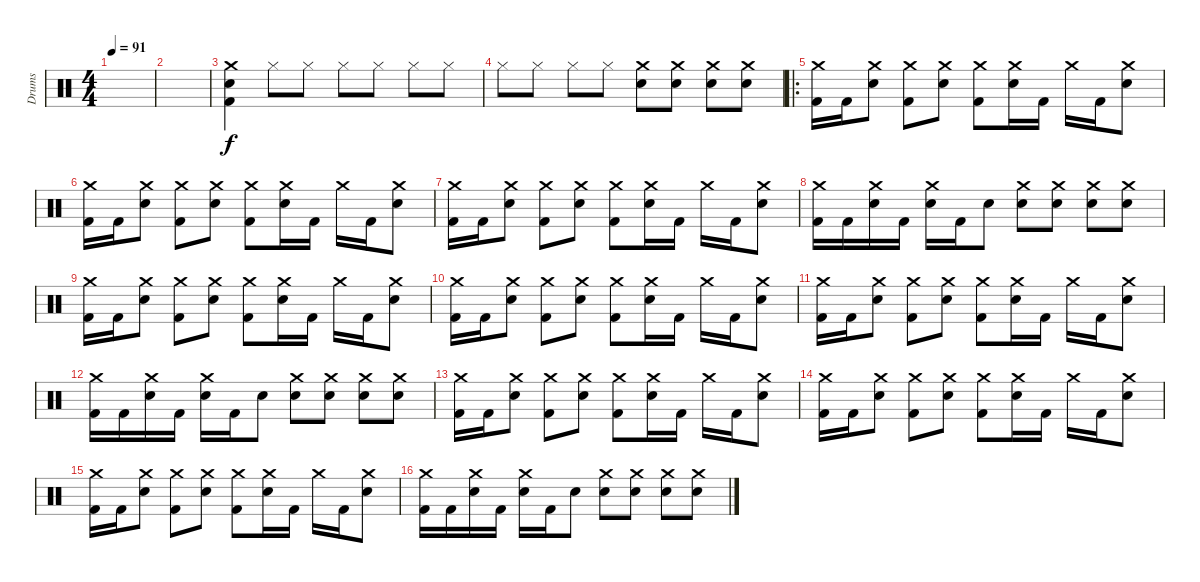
\track ("Drums" "Drums") {instrument percussion}
\staff {score}
\articulation defaults
\ts (4 4)
\tempo 91
\clef neutral
\ks c
|
|
("Crash medium (hit)" "Snare (hit) 2" "Kick (hit) 2").4 "Hi-Hat (closed)".8 "Hi-Hat (closed)".8 "Hi-Hat (closed)".8 "Hi-Hat (closed)".8 "Hi-Hat (closed)".8 "Hi-Hat (closed)".8 |
"Hi-Hat (closed)".8 "Hi-Hat (closed)".8 "Hi-Hat (closed)".8 "Hi-Hat (closed)".8 ("Snare (hit) 2" "Crash medium (hit)").8 ("Snare (hit) 2" "Crash medium (hit)").8 ("Snare (hit) 2" "Crash medium (hit)").8 ("Snare (hit) 2" "Crash medium (hit)").8 |
\ro
("Crash medium (hit)" "Kick (hit) 2").16 "Kick (hit) 2".16 ("Crash medium (hit)" "Snare (hit) 2").8 ("Crash medium (hit)" "Kick (hit) 2").8 ("Crash medium (hit)" "Snare (hit) 2").8 ("Crash medium (hit)" "Kick (hit) 2").8 ("Crash medium (hit)" "Snare (hit) 2").16 "Kick (hit) 2".16 "Crash medium (hit)".16 "Kick (hit) 2".16 ("Crash medium (hit)" "Snare (hit) 2").8 |
("Crash medium (hit)" "Kick (hit) 2").16 "Kick (hit) 2".16 ("Crash medium (hit)" "Snare (hit) 2").8 ("Crash medium (hit)" "Kick (hit) 2").8 ("Crash medium (hit)" "Snare (hit) 2").8 ("Crash medium (hit)" "Kick (hit) 2").8 ("Crash medium (hit)" "Snare (hit) 2").16 "Kick (hit) 2".16 "Crash medium (hit)".16 "Kick (hit) 2".16 ("Crash medium (hit)" "Snare (hit) 2").8 |
("Crash medium (hit)" "Kick (hit) 2").16 "Kick (hit) 2".16 ("Crash medium (hit)" "Snare (hit) 2").8 ("Crash medium (hit)" "Kick (hit) 2").8 ("Crash medium (hit)" "Snare (hit) 2").8 ("Crash medium (hit)" "Kick (hit) 2").8 ("Crash medium (hit)" "Snare (hit) 2").16 "Kick (hit) 2".16 "Crash medium (hit)".16 "Kick (hit) 2".16 ("Crash medium (hit)" "Snare (hit) 2").8 |
("Crash medium (hit)" "Kick (hit) 2").16 "Kick (hit) 2".16 ("Crash medium (hit)" "Snare (hit) 2").16 "Kick (hit) 2".16 ("Crash medium (hit)" "Snare (hit) 2").16 "Kick (hit) 2".16 "Snare (hit) 2".8 ("Crash medium (hit)" "Snare (hit) 2").8 ("Crash medium (hit)" "Snare (hit) 2").8 ("Crash medium (hit)" "Snare (hit) 2").8 ("Crash medium (hit)" "Snare (hit) 2").8 |
("Crash medium (hit)" "Kick (hit) 2").16 "Kick (hit) 2".16 ("Crash medium (hit)" "Snare (hit) 2").8 ("Crash medium (hit)" "Kick (hit) 2").8 ("Crash medium (hit)" "Snare (hit) 2").8 ("Crash medium (hit)" "Kick (hit) 2").8 ("Crash medium (hit)" "Snare (hit) 2").16 "Kick (hit) 2".16 "Crash medium (hit)".16 "Kick (hit) 2".16 ("Crash medium (hit)" "Snare (hit) 2").8 |
("Crash medium (hit)" "Kick (hit) 2").16 "Kick (hit) 2".16 ("Crash medium (hit)" "Snare (hit) 2").8 ("Crash medium (hit)" "Kick (hit) 2").8 ("Crash medium (hit)" "Snare (hit) 2").8 ("Crash medium (hit)" "Kick (hit) 2").8 ("Crash medium (hit)" "Snare (hit) 2").16 "Kick (hit) 2".16 "Crash medium (hit)".16 "Kick (hit) 2".16 ("Crash medium (hit)" "Snare (hit) 2").8 |
("Crash medium (hit)" "Kick (hit) 2").16 "Kick (hit) 2".16 ("Crash medium (hit)" "Snare (hit) 2").8 ("Crash medium (hit)" "Kick (hit) 2").8 ("Crash medium (hit)" "Snare (hit) 2").8 ("Crash medium (hit)" "Kick (hit) 2").8 ("Crash medium (hit)" "Snare (hit) 2").16 "Kick (hit) 2".16 "Crash medium (hit)".16 "Kick (hit) 2".16 ("Crash medium (hit)" "Snare (hit) 2").8 |
("Crash medium (hit)" "Kick (hit) 2").16 "Kick (hit) 2".16 ("Crash medium (hit)" "Snare (hit) 2").16 "Kick (hit) 2".16 ("Crash medium (hit)" "Snare (hit) 2").16 "Kick (hit) 2".16 "Snare (hit) 2".8 ("Crash medium (hit)" "Snare (hit) 2").8 ("Crash medium (hit)" "Snare (hit) 2").8 ("Crash medium (hit)" "Snare (hit) 2").8 ("Crash medium (hit)" "Snare (hit) 2").8 |
("Crash medium (hit)" "Kick (hit) 2").16 "Kick (hit) 2".16 ("Crash medium (hit)" "Snare (hit) 2").8 ("Crash medium (hit)" "Kick (hit) 2").8 ("Crash medium (hit)" "Snare (hit) 2").8 ("Crash medium (hit)" "Kick (hit) 2").8 ("Crash medium (hit)" "Snare (hit) 2").16 "Kick (hit) 2".16 "Crash medium (hit)".16 "Kick (hit) 2".16 ("Crash medium (hit)" "Snare (hit) 2").8 |
("Crash medium (hit)" "Kick (hit) 2").16 "Kick (hit) 2".16 ("Crash medium (hit)" "Snare (hit) 2").8 ("Crash medium (hit)" "Kick (hit) 2").8 ("Crash medium (hit)" "Snare (hit) 2").8 ("Crash medium (hit)" "Kick (hit) 2").8 ("Crash medium (hit)" "Snare (hit) 2").16 "Kick (hit) 2".16 "Crash medium (hit)".16 "Kick (hit) 2".16 ("Crash medium (hit)" "Snare (hit) 2").8 |
("Crash medium (hit)" "Kick (hit) 2").16 "Kick (hit) 2".16 ("Crash medium (hit)" "Snare (hit) 2").8 ("Crash medium (hit)" "Kick (hit) 2").8 ("Crash medium (hit)" "Snare (hit) 2").8 ("Crash medium (hit)" "Kick (hit) 2").8 ("Crash medium (hit)" "Snare (hit) 2").16 "Kick (hit) 2".16 "Crash medium (hit)".16 "Kick (hit) 2".16 ("Crash medium (hit)" "Snare (hit) 2").8 |
("Crash medium (hit)" "Kick (hit) 2").16 "Kick (hit) 2".16 ("Crash medium (hit)" "Snare (hit) 2").16 "Kick (hit) 2".16 ("Crash medium (hit)" "Snare (hit) 2").16 "Kick (hit) 2".16 "Snare (hit) 2".8 ("Crash medium (hit)" "Snare (hit) 2").8 ("Crash medium (hit)" "Snare (hit) 2").8 ("Crash medium (hit)" "Snare (hit) 2").8 ("Crash medium (hit)" "Snare (hit) 2").8
